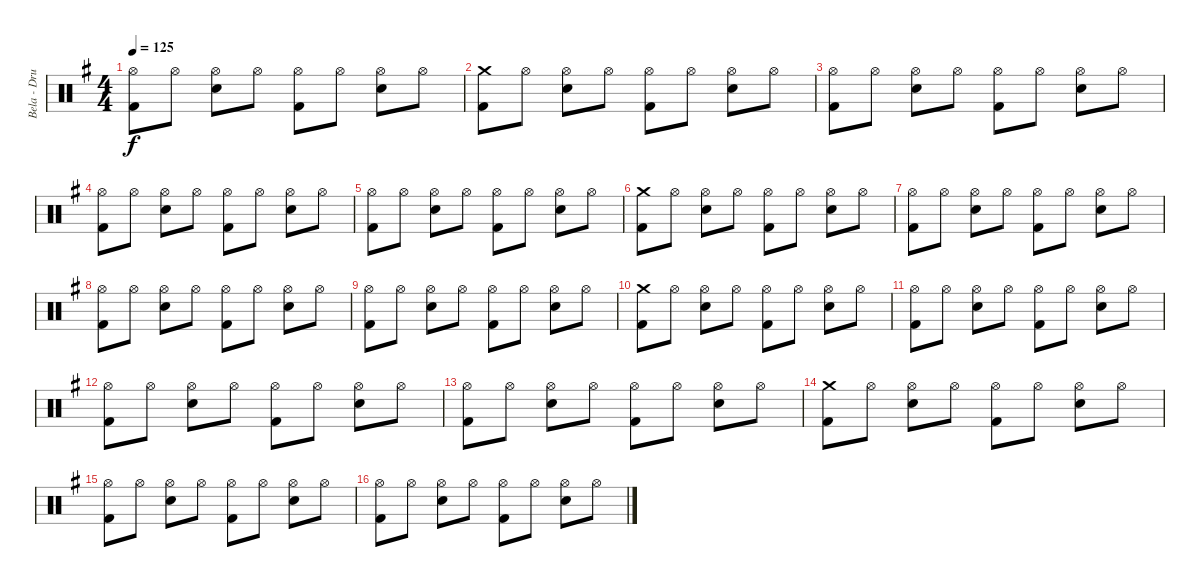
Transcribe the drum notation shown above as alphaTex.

\track ("Bela - Drums" "Bela - Dru") {instrument percussion}
\staff {score}
\articulation defaults
\ts (4 4)
\tempo 125
\clef neutral
\ks g
("Hi-Hat (open)" "Kick (hit) 2").8{dy f} "Hi-Hat (open)".8 ("Hi-Hat (open)" "Snare (hit) 2").8 "Hi-Hat (open)".8 ("Hi-Hat (open)" "Kick (hit) 2").8 "Hi-Hat (open)".8 ("Hi-Hat (open)" "Snare (hit) 2").8 "Hi-Hat (open)".8 |
("Crash medium (hit)" "Kick (hit) 2").8 "Hi-Hat (open)".8 ("Hi-Hat (open)" "Snare (hit) 2").8 "Hi-Hat (open)".8 ("Hi-Hat (open)" "Kick (hit) 2").8 "Hi-Hat (open)".8 ("Hi-Hat (open)" "Snare (hit) 2").8 "Hi-Hat (open)".8 |
("Hi-Hat (open)" "Kick (hit) 2").8 "Hi-Hat (open)".8 ("Hi-Hat (open)" "Snare (hit) 2").8 "Hi-Hat (open)".8 ("Hi-Hat (open)" "Kick (hit) 2").8 "Hi-Hat (open)".8 ("Hi-Hat (open)" "Snare (hit) 2").8 "Hi-Hat (open)".8 |
("Hi-Hat (open)" "Kick (hit) 2").8 "Hi-Hat (open)".8 ("Hi-Hat (open)" "Snare (hit) 2").8 "Hi-Hat (open)".8 ("Hi-Hat (open)" "Kick (hit) 2").8 "Hi-Hat (open)".8 ("Hi-Hat (open)" "Snare (hit) 2").8 "Hi-Hat (open)".8 |
("Hi-Hat (open)" "Kick (hit) 2").8 "Hi-Hat (open)".8 ("Hi-Hat (open)" "Snare (hit) 2").8 "Hi-Hat (open)".8 ("Hi-Hat (open)" "Kick (hit) 2").8 "Hi-Hat (open)".8 ("Hi-Hat (open)" "Snare (hit) 2").8 "Hi-Hat (open)".8 |
("Crash medium (hit)" "Kick (hit) 2").8 "Hi-Hat (open)".8 ("Hi-Hat (open)" "Snare (hit) 2").8 "Hi-Hat (open)".8 ("Hi-Hat (open)" "Kick (hit) 2").8 "Hi-Hat (open)".8 ("Hi-Hat (open)" "Snare (hit) 2").8 "Hi-Hat (open)".8 |
("Hi-Hat (open)" "Kick (hit) 2").8 "Hi-Hat (open)".8 ("Hi-Hat (open)" "Snare (hit) 2").8 "Hi-Hat (open)".8 ("Hi-Hat (open)" "Kick (hit) 2").8 "Hi-Hat (open)".8 ("Hi-Hat (open)" "Snare (hit) 2").8 "Hi-Hat (open)".8 |
("Hi-Hat (open)" "Kick (hit) 2").8 "Hi-Hat (open)".8 ("Hi-Hat (open)" "Snare (hit) 2").8 "Hi-Hat (open)".8 ("Hi-Hat (open)" "Kick (hit) 2").8 "Hi-Hat (open)".8 ("Hi-Hat (open)" "Snare (hit) 2").8 "Hi-Hat (open)".8 |
("Hi-Hat (open)" "Kick (hit) 2").8 "Hi-Hat (open)".8 ("Hi-Hat (open)" "Snare (hit) 2").8 "Hi-Hat (open)".8 ("Hi-Hat (open)" "Kick (hit) 2").8 "Hi-Hat (open)".8 ("Hi-Hat (open)" "Snare (hit) 2").8 "Hi-Hat (open)".8 |
("Crash medium (hit)" "Kick (hit) 2").8 "Hi-Hat (open)".8 ("Hi-Hat (open)" "Snare (hit) 2").8 "Hi-Hat (open)".8 ("Hi-Hat (open)" "Kick (hit) 2").8 "Hi-Hat (open)".8 ("Hi-Hat (open)" "Snare (hit) 2").8 "Hi-Hat (open)".8 |
("Hi-Hat (open)" "Kick (hit) 2").8 "Hi-Hat (open)".8 ("Hi-Hat (open)" "Snare (hit) 2").8 "Hi-Hat (open)".8 ("Hi-Hat (open)" "Kick (hit) 2").8 "Hi-Hat (open)".8 ("Hi-Hat (open)" "Snare (hit) 2").8 "Hi-Hat (open)".8 |
("Hi-Hat (open)" "Kick (hit) 2").8 "Hi-Hat (open)".8 ("Hi-Hat (open)" "Snare (hit) 2").8 "Hi-Hat (open)".8 ("Hi-Hat (open)" "Kick (hit) 2").8 "Hi-Hat (open)".8 ("Hi-Hat (open)" "Snare (hit) 2").8 "Hi-Hat (open)".8 |
("Hi-Hat (open)" "Kick (hit) 2").8 "Hi-Hat (open)".8 ("Hi-Hat (open)" "Snare (hit) 2").8 "Hi-Hat (open)".8 ("Hi-Hat (open)" "Kick (hit) 2").8 "Hi-Hat (open)".8 ("Hi-Hat (open)" "Snare (hit) 2").8 "Hi-Hat (open)".8 |
("Crash medium (hit)" "Kick (hit) 2").8 "Hi-Hat (open)".8 ("Hi-Hat (open)" "Snare (hit) 2").8 "Hi-Hat (open)".8 ("Hi-Hat (open)" "Kick (hit) 2").8 "Hi-Hat (open)".8 ("Hi-Hat (open)" "Snare (hit) 2").8 "Hi-Hat (open)".8 |
("Hi-Hat (open)" "Kick (hit) 2").8 "Hi-Hat (open)".8 ("Hi-Hat (open)" "Snare (hit) 2").8 "Hi-Hat (open)".8 ("Hi-Hat (open)" "Kick (hit) 2").8 "Hi-Hat (open)".8 ("Hi-Hat (open)" "Snare (hit) 2").8 "Hi-Hat (open)".8 |
("Hi-Hat (open)" "Kick (hit) 2").8 "Hi-Hat (open)".8 ("Hi-Hat (open)" "Snare (hit) 2").8 "Hi-Hat (open)".8 ("Hi-Hat (open)" "Kick (hit) 2").8 "Hi-Hat (open)".8 ("Hi-Hat (open)" "Snare (hit) 2").8 "Hi-Hat (open)".8
